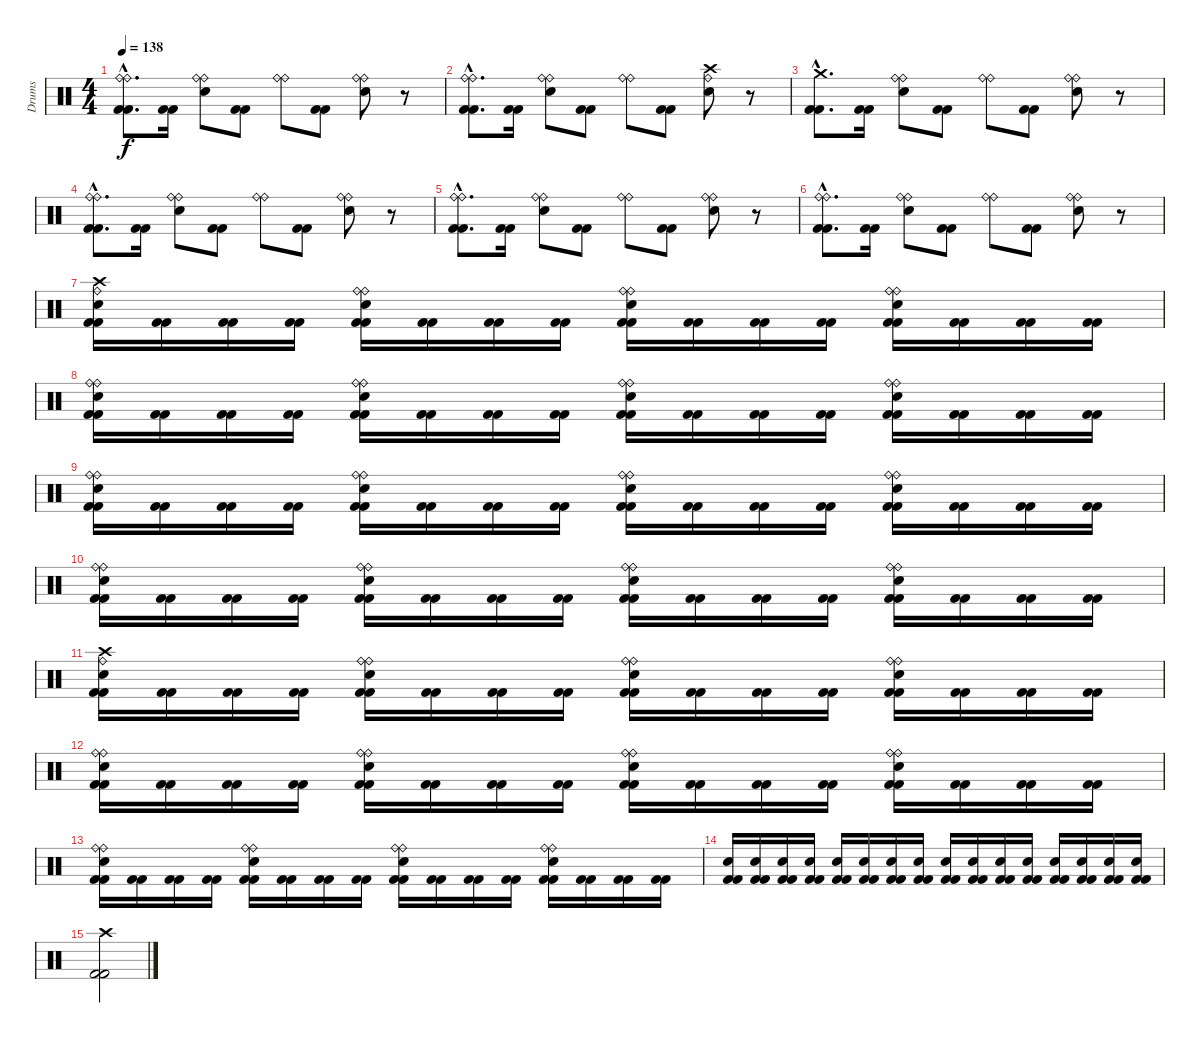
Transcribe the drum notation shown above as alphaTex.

\track ("Drums" "Drums") {instrument percussion}
\staff {score}
\articulation defaults
\ts (4 4)
\tempo 138
\clef neutral
\ks c
("Ride (bell)"{hac} "Ride (bell)"{hac} "Kick (hit) 2"{hac} "Kick (hit) 2"{hac}).8{d dy f} ("Kick (hit) 2" "Kick (hit) 2").16 ("Ride (bell)" "Ride (bell)" "Electric Snare (hit)").8 ("Kick (hit) 2" "Kick (hit) 2").8 ("Ride (bell)" "Ride (bell)").8 ("Kick (hit) 2" "Kick (hit) 2").8 ("Ride (bell)" "Ride (bell)" "Electric Snare (hit)").8 r.8 |
("Ride (bell)"{hac} "Ride (bell)"{hac} "Kick (hit) 2"{hac} "Kick (hit) 2"{hac}).8{d} ("Kick (hit) 2" "Kick (hit) 2").16 ("Ride (bell)" "Ride (bell)" "Electric Snare (hit)").8 ("Kick (hit) 2" "Kick (hit) 2").8 ("Ride (bell)" "Ride (bell)").8 ("Kick (hit) 2" "Kick (hit) 2").8 ("Crash high (hit)" "Ride (bell)" "Electric Snare (hit)").8 r.8 |
("Crash medium (hit)"{hac} "Kick (hit) 2"{hac} "Kick (hit) 2"{hac}).8{d} ("Kick (hit) 2" "Kick (hit) 2").16 ("Ride (bell)" "Ride (bell)" "Electric Snare (hit)").8 ("Kick (hit) 2" "Kick (hit) 2").8 ("Ride (bell)" "Ride (bell)").8 ("Kick (hit) 2" "Kick (hit) 2").8 ("Ride (bell)" "Ride (bell)" "Electric Snare (hit)").8 r.8 |
("Ride (bell)"{hac} "Ride (bell)"{hac} "Kick (hit) 2"{hac} "Kick (hit) 2"{hac}).8{d} ("Kick (hit) 2" "Kick (hit) 2").16 ("Ride (bell)" "Ride (bell)" "Electric Snare (hit)").8 ("Kick (hit) 2" "Kick (hit) 2").8 ("Ride (bell)" "Ride (bell)").8 ("Kick (hit) 2" "Kick (hit) 2").8 ("Ride (bell)" "Ride (bell)" "Electric Snare (hit)").8 r.8 |
("Ride (bell)"{hac} "Ride (bell)"{hac} "Kick (hit) 2"{hac} "Kick (hit) 2"{hac}).8{d} ("Kick (hit) 2" "Kick (hit) 2").16 ("Ride (bell)" "Ride (bell)" "Electric Snare (hit)").8 ("Kick (hit) 2" "Kick (hit) 2").8 ("Ride (bell)" "Ride (bell)").8 ("Kick (hit) 2" "Kick (hit) 2").8 ("Ride (bell)" "Ride (bell)" "Electric Snare (hit)").8 r.8 |
("Ride (bell)"{hac} "Ride (bell)"{hac} "Kick (hit) 2"{hac} "Kick (hit) 2"{hac}).8{d} ("Kick (hit) 2" "Kick (hit) 2").16 ("Ride (bell)" "Ride (bell)" "Electric Snare (hit)").8 ("Kick (hit) 2" "Kick (hit) 2").8 ("Ride (bell)" "Ride (bell)").8 ("Kick (hit) 2" "Kick (hit) 2").8 ("Ride (bell)" "Ride (bell)" "Electric Snare (hit)").8 r.8 |
("Crash high (hit)" "Ride (bell)" "Electric Snare (hit)" "Kick (hit) 2" "Kick (hit) 2").16 ("Kick (hit) 2" "Kick (hit) 2").16 ("Kick (hit) 2" "Kick (hit) 2").16 ("Kick (hit) 2" "Kick (hit) 2").16 ("Ride (bell)" "Ride (bell)" "Electric Snare (hit)" "Kick (hit) 2" "Kick (hit) 2").16 ("Kick (hit) 2" "Kick (hit) 2").16 ("Kick (hit) 2" "Kick (hit) 2").16 ("Kick (hit) 2" "Kick (hit) 2").16 ("Ride (bell)" "Ride (bell)" "Electric Snare (hit)" "Kick (hit) 2" "Kick (hit) 2").16 ("Kick (hit) 2" "Kick (hit) 2").16 ("Kick (hit) 2" "Kick (hit) 2").16 ("Kick (hit) 2" "Kick (hit) 2").16 ("Ride (bell)" "Ride (bell)" "Electric Snare (hit)" "Kick (hit) 2" "Kick (hit) 2").16 ("Kick (hit) 2" "Kick (hit) 2").16 ("Kick (hit) 2" "Kick (hit) 2").16 ("Kick (hit) 2" "Kick (hit) 2").16 |
("Ride (bell)" "Ride (bell)" "Electric Snare (hit)" "Kick (hit) 2" "Kick (hit) 2").16 ("Kick (hit) 2" "Kick (hit) 2").16 ("Kick (hit) 2" "Kick (hit) 2").16 ("Kick (hit) 2" "Kick (hit) 2").16 ("Ride (bell)" "Ride (bell)" "Electric Snare (hit)" "Kick (hit) 2" "Kick (hit) 2").16 ("Kick (hit) 2" "Kick (hit) 2").16 ("Kick (hit) 2" "Kick (hit) 2").16 ("Kick (hit) 2" "Kick (hit) 2").16 ("Ride (bell)" "Ride (bell)" "Electric Snare (hit)" "Kick (hit) 2" "Kick (hit) 2").16 ("Kick (hit) 2" "Kick (hit) 2").16 ("Kick (hit) 2" "Kick (hit) 2").16 ("Kick (hit) 2" "Kick (hit) 2").16 ("Ride (bell)" "Ride (bell)" "Electric Snare (hit)" "Kick (hit) 2" "Kick (hit) 2").16 ("Kick (hit) 2" "Kick (hit) 2").16 ("Kick (hit) 2" "Kick (hit) 2").16 ("Kick (hit) 2" "Kick (hit) 2").16 |
("Ride (bell)" "Ride (bell)" "Electric Snare (hit)" "Kick (hit) 2" "Kick (hit) 2").16 ("Kick (hit) 2" "Kick (hit) 2").16 ("Kick (hit) 2" "Kick (hit) 2").16 ("Kick (hit) 2" "Kick (hit) 2").16 ("Ride (bell)" "Ride (bell)" "Electric Snare (hit)" "Kick (hit) 2" "Kick (hit) 2").16 ("Kick (hit) 2" "Kick (hit) 2").16 ("Kick (hit) 2" "Kick (hit) 2").16 ("Kick (hit) 2" "Kick (hit) 2").16 ("Ride (bell)" "Ride (bell)" "Electric Snare (hit)" "Kick (hit) 2" "Kick (hit) 2").16 ("Kick (hit) 2" "Kick (hit) 2").16 ("Kick (hit) 2" "Kick (hit) 2").16 ("Kick (hit) 2" "Kick (hit) 2").16 ("Ride (bell)" "Ride (bell)" "Electric Snare (hit)" "Kick (hit) 2" "Kick (hit) 2").16 ("Kick (hit) 2" "Kick (hit) 2").16 ("Kick (hit) 2" "Kick (hit) 2").16 ("Kick (hit) 2" "Kick (hit) 2").16 |
("Ride (bell)" "Ride (bell)" "Electric Snare (hit)" "Kick (hit) 2" "Kick (hit) 2").16 ("Kick (hit) 2" "Kick (hit) 2").16 ("Kick (hit) 2" "Kick (hit) 2").16 ("Kick (hit) 2" "Kick (hit) 2").16 ("Ride (bell)" "Ride (bell)" "Electric Snare (hit)" "Kick (hit) 2" "Kick (hit) 2").16 ("Kick (hit) 2" "Kick (hit) 2").16 ("Kick (hit) 2" "Kick (hit) 2").16 ("Kick (hit) 2" "Kick (hit) 2").16 ("Ride (bell)" "Ride (bell)" "Electric Snare (hit)" "Kick (hit) 2" "Kick (hit) 2").16 ("Kick (hit) 2" "Kick (hit) 2").16 ("Kick (hit) 2" "Kick (hit) 2").16 ("Kick (hit) 2" "Kick (hit) 2").16 ("Ride (bell)" "Ride (bell)" "Electric Snare (hit)" "Kick (hit) 2" "Kick (hit) 2").16 ("Kick (hit) 2" "Kick (hit) 2").16 ("Kick (hit) 2" "Kick (hit) 2").16 ("Kick (hit) 2" "Kick (hit) 2").16 |
("Crash high (hit)" "Ride (bell)" "Electric Snare (hit)" "Kick (hit) 2" "Kick (hit) 2").16 ("Kick (hit) 2" "Kick (hit) 2").16 ("Kick (hit) 2" "Kick (hit) 2").16 ("Kick (hit) 2" "Kick (hit) 2").16 ("Ride (bell)" "Ride (bell)" "Electric Snare (hit)" "Kick (hit) 2" "Kick (hit) 2").16 ("Kick (hit) 2" "Kick (hit) 2").16 ("Kick (hit) 2" "Kick (hit) 2").16 ("Kick (hit) 2" "Kick (hit) 2").16 ("Ride (bell)" "Ride (bell)" "Electric Snare (hit)" "Kick (hit) 2" "Kick (hit) 2").16 ("Kick (hit) 2" "Kick (hit) 2").16 ("Kick (hit) 2" "Kick (hit) 2").16 ("Kick (hit) 2" "Kick (hit) 2").16 ("Ride (bell)" "Ride (bell)" "Electric Snare (hit)" "Kick (hit) 2" "Kick (hit) 2").16 ("Kick (hit) 2" "Kick (hit) 2").16 ("Kick (hit) 2" "Kick (hit) 2").16 ("Kick (hit) 2" "Kick (hit) 2").16 |
("Ride (bell)" "Ride (bell)" "Electric Snare (hit)" "Kick (hit) 2" "Kick (hit) 2").16 ("Kick (hit) 2" "Kick (hit) 2").16 ("Kick (hit) 2" "Kick (hit) 2").16 ("Kick (hit) 2" "Kick (hit) 2").16 ("Ride (bell)" "Ride (bell)" "Electric Snare (hit)" "Kick (hit) 2" "Kick (hit) 2").16 ("Kick (hit) 2" "Kick (hit) 2").16 ("Kick (hit) 2" "Kick (hit) 2").16 ("Kick (hit) 2" "Kick (hit) 2").16 ("Ride (bell)" "Ride (bell)" "Electric Snare (hit)" "Kick (hit) 2" "Kick (hit) 2").16 ("Kick (hit) 2" "Kick (hit) 2").16 ("Kick (hit) 2" "Kick (hit) 2").16 ("Kick (hit) 2" "Kick (hit) 2").16 ("Ride (bell)" "Ride (bell)" "Electric Snare (hit)" "Kick (hit) 2" "Kick (hit) 2").16 ("Kick (hit) 2" "Kick (hit) 2").16 ("Kick (hit) 2" "Kick (hit) 2").16 ("Kick (hit) 2" "Kick (hit) 2").16 |
("Ride (bell)" "Ride (bell)" "Electric Snare (hit)" "Kick (hit) 2" "Kick (hit) 2").16 ("Kick (hit) 2" "Kick (hit) 2").16 ("Kick (hit) 2" "Kick (hit) 2").16 ("Kick (hit) 2" "Kick (hit) 2").16 ("Ride (bell)" "Ride (bell)" "Electric Snare (hit)" "Kick (hit) 2" "Kick (hit) 2").16 ("Kick (hit) 2" "Kick (hit) 2").16 ("Kick (hit) 2" "Kick (hit) 2").16 ("Kick (hit) 2" "Kick (hit) 2").16 ("Ride (bell)" "Ride (bell)" "Electric Snare (hit)" "Kick (hit) 2" "Kick (hit) 2").16 ("Kick (hit) 2" "Kick (hit) 2").16 ("Kick (hit) 2" "Kick (hit) 2").16 ("Kick (hit) 2" "Kick (hit) 2").16 ("Ride (bell)" "Ride (bell)" "Electric Snare (hit)" "Kick (hit) 2" "Kick (hit) 2").16 ("Kick (hit) 2" "Kick (hit) 2").16 ("Kick (hit) 2" "Kick (hit) 2").16 ("Kick (hit) 2" "Kick (hit) 2").16 |
("Electric Snare (hit)" "Kick (hit) 2" "Kick (hit) 2").16 ("Electric Snare (hit)" "Kick (hit) 2" "Kick (hit) 2").16 ("Electric Snare (hit)" "Kick (hit) 2" "Kick (hit) 2").16 ("Electric Snare (hit)" "Kick (hit) 2" "Kick (hit) 2").16 ("Electric Snare (hit)" "Kick (hit) 2" "Kick (hit) 2").16 ("Electric Snare (hit)" "Kick (hit) 2" "Kick (hit) 2").16 ("Electric Snare (hit)" "Kick (hit) 2" "Kick (hit) 2").16 ("Electric Snare (hit)" "Kick (hit) 2" "Kick (hit) 2").16 ("Electric Snare (hit)" "Kick (hit) 2" "Kick (hit) 2").16 ("Electric Snare (hit)" "Kick (hit) 2" "Kick (hit) 2").16 ("Electric Snare (hit)" "Kick (hit) 2" "Kick (hit) 2").16 ("Electric Snare (hit)" "Kick (hit) 2" "Kick (hit) 2").16 ("Electric Snare (hit)" "Kick (hit) 2" "Kick (hit) 2").16 ("Electric Snare (hit)" "Kick (hit) 2" "Kick (hit) 2").16 ("Electric Snare (hit)" "Kick (hit) 2" "Kick (hit) 2").16 ("Electric Snare (hit)" "Kick (hit) 2" "Kick (hit) 2").16 |
("Crash high (hit)" "Kick (hit) 2" "Kick (hit) 2").2
